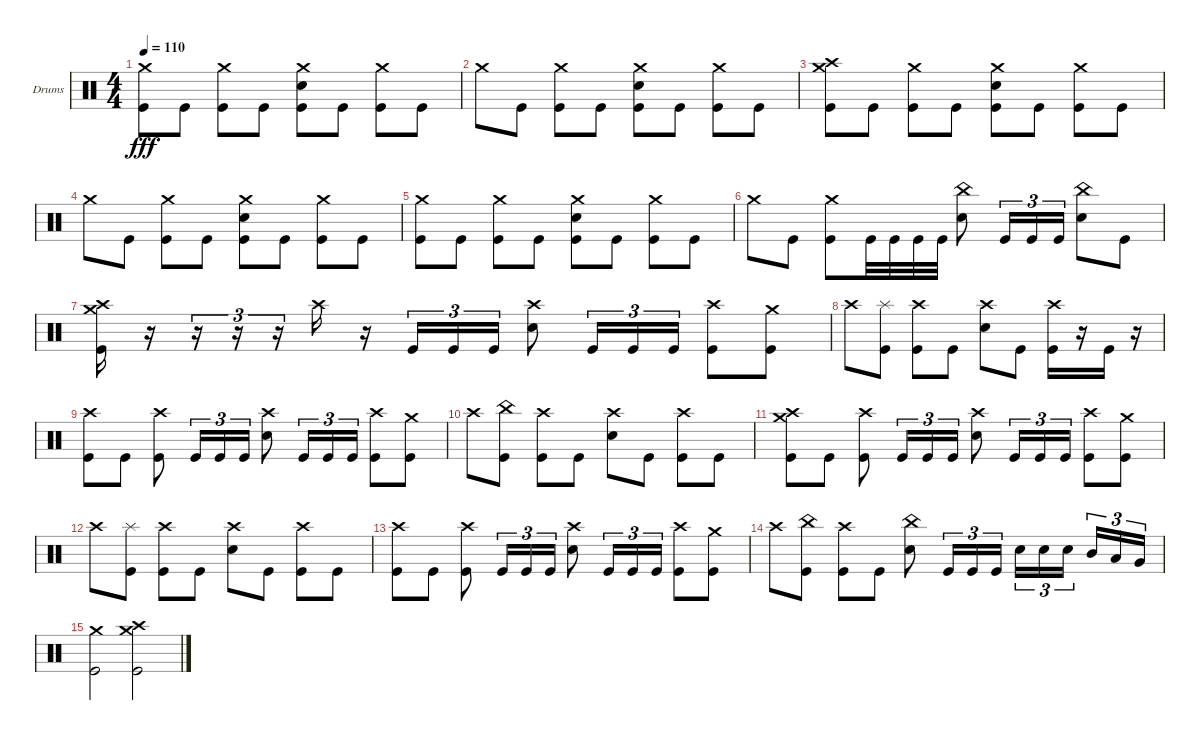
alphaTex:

\bracketExtendMode groupsimilarinstruments
\firstSystemTrackNameOrientation horizontal
\otherSystemsTrackNameOrientation horizontal
\track ("Drumkit" "Drums") {instrument percussion}
\staff {score}
\articulation defaults
\ts (4 4)
\tempo 110
\clef neutral
\ks c
("Crash medium (hit)" "Kick (hit)").8{dy fff} "Kick (hit)".8 ("Kick (hit)" "Crash medium (hit)").8 "Kick (hit)".8 ("Kick (hit)" "Crash medium (hit)" "Snare (hit) 2").8 "Kick (hit)".8 ("Kick (hit)" "Crash medium (hit)").8 "Kick (hit)".8 |
"Crash medium (hit)".8 "Kick (hit)".8 ("Kick (hit)" "Crash medium (hit)").8 "Kick (hit)".8 ("Kick (hit)" "Crash medium (hit)" "Snare (hit) 2").8 "Kick (hit)".8 ("Kick (hit)" "Crash medium (hit)").8 "Kick (hit)".8 |
("Crash medium (hit)" "Kick (hit)" "Crash high (hit)").8 "Kick (hit)".8 ("Kick (hit)" "Crash medium (hit)").8 "Kick (hit)".8 ("Kick (hit)" "Crash medium (hit)" "Snare (hit) 2").8 "Kick (hit)".8 ("Kick (hit)" "Crash medium (hit)").8 "Kick (hit)".8 |
"Crash medium (hit)".8 "Kick (hit)".8 ("Kick (hit)" "Crash medium (hit)").8 "Kick (hit)".8 ("Kick (hit)" "Crash medium (hit)" "Snare (hit) 2").8 "Kick (hit)".8 ("Kick (hit)" "Crash medium (hit)").8 "Kick (hit)".8 |
("Crash medium (hit)" "Kick (hit)").8 "Kick (hit)".8 ("Kick (hit)" "Crash medium (hit)").8 "Kick (hit)".8 ("Kick (hit)" "Crash medium (hit)" "Snare (hit) 2").8 "Kick (hit)".8 ("Kick (hit)" "Crash medium (hit)").8 "Kick (hit)".8 |
"Crash medium (hit)".8 "Kick (hit)".8 ("Kick (hit)" "Crash medium (hit)").8 "Kick (hit)".32 "Kick (hit)".32 "Kick (hit)".32 "Kick (hit)".32 ("Snare (hit) 2" "China (hit)").8 "Kick (hit)".16{tu (3 2)} "Kick (hit)".16{tu (3 2)} "Kick (hit)".16{tu (3 2)} ("Snare (hit) 2" "China (hit)").8 "Kick (hit)".8 |
("Kick (hit)" "Crash medium (hit)" "Crash high (hit)").16 r.16 r.16{tu (3 2)} r.16{tu (3 2)} r.16{tu (3 2)} "Crash high (hit)".16 r.16 "Kick (hit)".16{tu (3 2)} "Kick (hit)".16{tu (3 2)} "Kick (hit)".16{tu (3 2)} ("Crash high (hit)" "Snare (hit) 2").8 "Kick (hit)".16{tu (3 2)} "Kick (hit)".16{tu (3 2)} "Kick (hit)".16{tu (3 2)} ("Kick (hit)" "Crash high (hit)").8 ("Kick (hit)" "Crash medium (hit)").8 |
"Crash high (hit)".8 ("Kick (hit)" "Splash (hit)").8 ("Kick (hit)" "Crash high (hit)").8 "Kick (hit)".8 ("Snare (hit) 2" "Crash high (hit)").8 "Kick (hit)".8 ("Kick (hit)" "Crash high (hit)").16 r.16 "Kick (hit)".16 r.16 |
("Kick (hit)" "Crash high (hit)").8 "Kick (hit)".8 ("Kick (hit)" "Crash high (hit)").8 "Kick (hit)".16{tu (3 2)} "Kick (hit)".16{tu (3 2)} "Kick (hit)".16{tu (3 2)} ("Snare (hit) 2" "Crash high (hit)").8 "Kick (hit)".16{tu (3 2)} "Kick (hit)".16{tu (3 2)} "Kick (hit)".16{tu (3 2)} ("Kick (hit)" "Crash high (hit)").8 ("Kick (hit)" "Crash medium (hit)").8 |
"Crash high (hit)".8 ("Kick (hit)" "China (hit)").8 ("Kick (hit)" "Crash high (hit)").8 "Kick (hit)".8 ("Snare (hit) 2" "Crash high (hit)").8 "Kick (hit)".8 ("Kick (hit)" "Crash high (hit)").8 "Kick (hit)".8 |
("Crash medium (hit)" "Kick (hit)" "Crash high (hit)").8 "Kick (hit)".8 ("Kick (hit)" "Crash high (hit)").8 "Kick (hit)".16{tu (3 2)} "Kick (hit)".16{tu (3 2)} "Kick (hit)".16{tu (3 2)} ("Snare (hit) 2" "Crash high (hit)").8 "Kick (hit)".16{tu (3 2)} "Kick (hit)".16{tu (3 2)} "Kick (hit)".16{tu (3 2)} ("Kick (hit)" "Crash high (hit)").8 ("Kick (hit)" "Crash medium (hit)").8 |
"Crash high (hit)".8 ("Kick (hit)" "Splash (hit)").8 ("Kick (hit)" "Crash high (hit)").8 "Kick (hit)".8 ("Snare (hit) 2" "Crash high (hit)").8 "Kick (hit)".8 ("Kick (hit)" "Crash high (hit)").8 "Kick (hit)".8 |
("Kick (hit)" "Crash high (hit)").8 "Kick (hit)".8 ("Kick (hit)" "Crash high (hit)").8 "Kick (hit)".16{tu (3 2)} "Kick (hit)".16{tu (3 2)} "Kick (hit)".16{tu (3 2)} ("Snare (hit) 2" "Crash high (hit)").8 "Kick (hit)".16{tu (3 2)} "Kick (hit)".16{tu (3 2)} "Kick (hit)".16{tu (3 2)} ("Kick (hit)" "Crash high (hit)").8 ("Kick (hit)" "Crash medium (hit)").8 |
"Crash high (hit)".8 ("Kick (hit)" "China (hit)").8 ("Kick (hit)" "Crash high (hit)").8 "Kick (hit)".8 ("Snare (hit) 2" "China (hit)").8 "Kick (hit)".16{tu (3 2)} "Kick (hit)".16{tu (3 2)} "Kick (hit)".16{tu (3 2)} "Snare (hit) 2".16{tu (3 2)} "Snare (hit) 2".16{tu (3 2)} "Snare (hit) 2".16{tu (3 2)} "Mid Tom (hit)".16{tu (3 2)} "Low Tom (hit)".16{tu (3 2)} "Very Low Tom (hit)".16{tu (3 2)} |
("Kick (hit)" "Crash medium (hit)").2 ("Kick (hit)" "Crash high (hit)" "Crash medium (hit)").2
